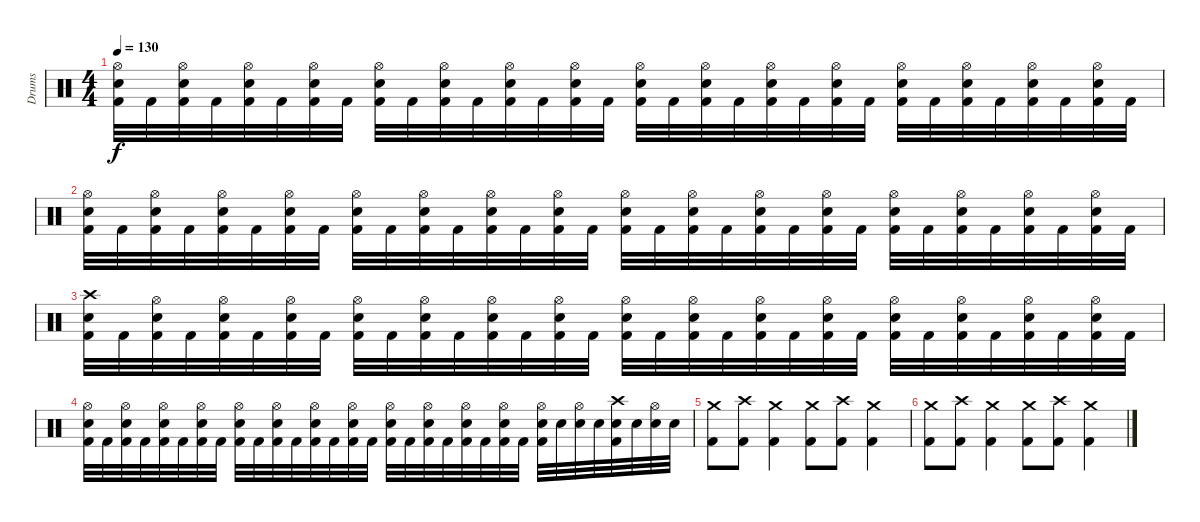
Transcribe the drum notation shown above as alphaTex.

\track ("Drums" "Drums") {instrument percussion}
\staff {score}
\articulation defaults
\ts (4 4)
\tempo 130
\clef neutral
\ks c
("Hi-Hat (open)" "Electric Snare (hit)" "Kick (hit) 2").32{dy f} "Kick (hit) 2".32 ("Hi-Hat (open)" "Electric Snare (hit)" "Kick (hit) 2").32 "Kick (hit) 2".32 ("Hi-Hat (open)" "Electric Snare (hit)" "Kick (hit) 2").32 "Kick (hit) 2".32 ("Hi-Hat (open)" "Electric Snare (hit)" "Kick (hit) 2").32 "Kick (hit) 2".32 ("Hi-Hat (open)" "Electric Snare (hit)" "Kick (hit) 2").32 "Kick (hit) 2".32 ("Hi-Hat (open)" "Electric Snare (hit)" "Kick (hit) 2").32 "Kick (hit) 2".32 ("Hi-Hat (open)" "Electric Snare (hit)" "Kick (hit) 2").32 "Kick (hit) 2".32 ("Hi-Hat (open)" "Electric Snare (hit)" "Kick (hit) 2").32 "Kick (hit) 2".32 ("Hi-Hat (open)" "Electric Snare (hit)" "Kick (hit) 2").32 "Kick (hit) 2".32 ("Hi-Hat (open)" "Electric Snare (hit)" "Kick (hit) 2").32 "Kick (hit) 2".32 ("Hi-Hat (open)" "Electric Snare (hit)" "Kick (hit) 2").32 "Kick (hit) 2".32 ("Hi-Hat (open)" "Electric Snare (hit)" "Kick (hit) 2").32 "Kick (hit) 2".32 ("Hi-Hat (open)" "Electric Snare (hit)" "Kick (hit) 2").32 "Kick (hit) 2".32 ("Hi-Hat (open)" "Electric Snare (hit)" "Kick (hit) 2").32 "Kick (hit) 2".32 ("Hi-Hat (open)" "Electric Snare (hit)" "Kick (hit) 2").32 "Kick (hit) 2".32 ("Hi-Hat (open)" "Electric Snare (hit)" "Kick (hit) 2").32 "Kick (hit) 2".32 |
("Hi-Hat (open)" "Electric Snare (hit)" "Kick (hit) 2").32 "Kick (hit) 2".32 ("Hi-Hat (open)" "Electric Snare (hit)" "Kick (hit) 2").32 "Kick (hit) 2".32 ("Hi-Hat (open)" "Electric Snare (hit)" "Kick (hit) 2").32 "Kick (hit) 2".32 ("Hi-Hat (open)" "Electric Snare (hit)" "Kick (hit) 2").32 "Kick (hit) 2".32 ("Hi-Hat (open)" "Electric Snare (hit)" "Kick (hit) 2").32 "Kick (hit) 2".32 ("Hi-Hat (open)" "Electric Snare (hit)" "Kick (hit) 2").32 "Kick (hit) 2".32 ("Hi-Hat (open)" "Electric Snare (hit)" "Kick (hit) 2").32 "Kick (hit) 2".32 ("Hi-Hat (open)" "Electric Snare (hit)" "Kick (hit) 2").32 "Kick (hit) 2".32 ("Hi-Hat (open)" "Electric Snare (hit)" "Kick (hit) 2").32 "Kick (hit) 2".32 ("Hi-Hat (open)" "Electric Snare (hit)" "Kick (hit) 2").32 "Kick (hit) 2".32 ("Hi-Hat (open)" "Electric Snare (hit)" "Kick (hit) 2").32 "Kick (hit) 2".32 ("Hi-Hat (open)" "Electric Snare (hit)" "Kick (hit) 2").32 "Kick (hit) 2".32 ("Hi-Hat (open)" "Electric Snare (hit)" "Kick (hit) 2").32 "Kick (hit) 2".32 ("Hi-Hat (open)" "Electric Snare (hit)" "Kick (hit) 2").32 "Kick (hit) 2".32 ("Hi-Hat (open)" "Electric Snare (hit)" "Kick (hit) 2").32 "Kick (hit) 2".32 ("Hi-Hat (open)" "Electric Snare (hit)" "Kick (hit) 2").32 "Kick (hit) 2".32 |
("Crash high (hit)" "Electric Snare (hit)" "Kick (hit) 2").32 "Kick (hit) 2".32 ("Hi-Hat (open)" "Electric Snare (hit)" "Kick (hit) 2").32 "Kick (hit) 2".32 ("Hi-Hat (open)" "Electric Snare (hit)" "Kick (hit) 2").32 "Kick (hit) 2".32 ("Hi-Hat (open)" "Electric Snare (hit)" "Kick (hit) 2").32 "Kick (hit) 2".32 ("Hi-Hat (open)" "Electric Snare (hit)" "Kick (hit) 2").32 "Kick (hit) 2".32 ("Hi-Hat (open)" "Electric Snare (hit)" "Kick (hit) 2").32 "Kick (hit) 2".32 ("Hi-Hat (open)" "Electric Snare (hit)" "Kick (hit) 2").32 "Kick (hit) 2".32 ("Hi-Hat (open)" "Electric Snare (hit)" "Kick (hit) 2").32 "Kick (hit) 2".32 ("Hi-Hat (open)" "Electric Snare (hit)" "Kick (hit) 2").32 "Kick (hit) 2".32 ("Hi-Hat (open)" "Electric Snare (hit)" "Kick (hit) 2").32 "Kick (hit) 2".32 ("Hi-Hat (open)" "Electric Snare (hit)" "Kick (hit) 2").32 "Kick (hit) 2".32 ("Hi-Hat (open)" "Electric Snare (hit)" "Kick (hit) 2").32 "Kick (hit) 2".32 ("Hi-Hat (open)" "Electric Snare (hit)" "Kick (hit) 2").32 "Kick (hit) 2".32 ("Hi-Hat (open)" "Electric Snare (hit)" "Kick (hit) 2").32 "Kick (hit) 2".32 ("Hi-Hat (open)" "Electric Snare (hit)" "Kick (hit) 2").32 "Kick (hit) 2".32 ("Hi-Hat (open)" "Electric Snare (hit)" "Kick (hit) 2").32 "Kick (hit) 2".32 |
("Hi-Hat (open)" "Electric Snare (hit)" "Kick (hit) 2").32 "Kick (hit) 2".32 ("Hi-Hat (open)" "Electric Snare (hit)" "Kick (hit) 2").32 "Kick (hit) 2".32 ("Hi-Hat (open)" "Electric Snare (hit)" "Kick (hit) 2").32 "Kick (hit) 2".32 ("Hi-Hat (open)" "Electric Snare (hit)" "Kick (hit) 2").32 "Kick (hit) 2".32 ("Hi-Hat (open)" "Electric Snare (hit)" "Kick (hit) 2").32 "Kick (hit) 2".32 ("Hi-Hat (open)" "Electric Snare (hit)" "Kick (hit) 2").32 "Kick (hit) 2".32 ("Hi-Hat (open)" "Electric Snare (hit)" "Kick (hit) 2").32 "Kick (hit) 2".32 ("Hi-Hat (open)" "Electric Snare (hit)" "Kick (hit) 2").32 "Kick (hit) 2".32 ("Hi-Hat (open)" "Electric Snare (hit)" "Kick (hit) 2").32 "Kick (hit) 2".32 ("Hi-Hat (open)" "Electric Snare (hit)" "Kick (hit) 2").32 "Kick (hit) 2".32 ("Hi-Hat (open)" "Electric Snare (hit)" "Kick (hit) 2").32 "Kick (hit) 2".32 ("Hi-Hat (open)" "Electric Snare (hit)" "Kick (hit) 2").32 "Kick (hit) 2".32 ("Hi-Hat (open)" "Electric Snare (hit)" "Kick (hit) 2").32 "Electric Snare (hit)".32 ("Hi-Hat (open)" "Electric Snare (hit)").32 "Electric Snare (hit)".32 ("Crash high (hit)" "Electric Snare (hit)" "Kick (hit) 2").32 "Electric Snare (hit)".32 ("Hi-Hat (open)" "Electric Snare (hit)").32 "Electric Snare (hit)".32 |
("Crash medium (hit)" "Kick (hit) 2").8 ("Crash high (hit)" "Kick (hit) 2").8 ("Crash medium (hit)" "Kick (hit) 2").4 ("Crash medium (hit)" "Kick (hit) 2").8 ("Crash high (hit)" "Kick (hit) 2").8 ("Crash medium (hit)" "Kick (hit) 2").4 |
("Crash medium (hit)" "Kick (hit) 2").8 ("Crash high (hit)" "Kick (hit) 2").8 ("Crash medium (hit)" "Kick (hit) 2").4 ("Crash medium (hit)" "Kick (hit) 2").8 ("Crash high (hit)" "Kick (hit) 2").8 ("Crash medium (hit)" "Kick (hit) 2").4
